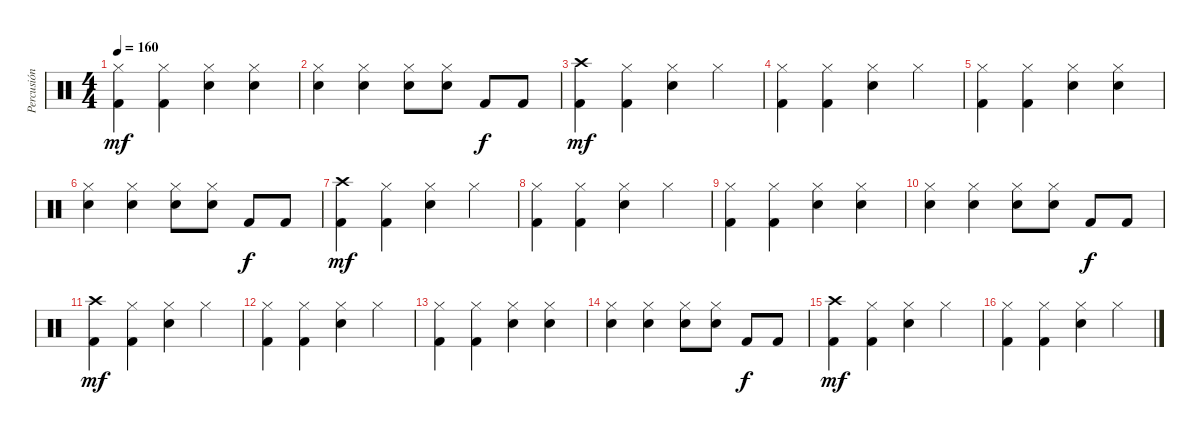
\track ("Percusión" "Percusión") {instrument percussion}
\staff {score}
\articulation defaults
\ts (4 4)
\tempo 160
\clef neutral
\ks c
("Hi-Hat (closed)" "Kick (hit) 2").4{dy mf} ("Hi-Hat (closed)" "Kick (hit) 2").4 ("Hi-Hat (closed)" "Snare (hit) 2").4 ("Hi-Hat (closed)" "Snare (hit) 2").4 |
("Hi-Hat (closed)" "Snare (hit) 2").4 ("Hi-Hat (closed)" "Electric Snare (hit)").4 ("Hi-Hat (closed)" "Snare (hit) 2").8 ("Hi-Hat (closed)" "Snare (hit) 2").8 "Kick (hit) 2".8{dy f} "Kick (hit) 2".8 |
("Crash high (hit)" "Kick (hit) 2").4{dy mf} ("Hi-Hat (closed)" "Kick (hit) 2").4 ("Hi-Hat (closed)" "Snare (hit) 2").4 "Hi-Hat (closed)".4 |
("Hi-Hat (closed)" "Kick (hit) 2").4 ("Hi-Hat (closed)" "Kick (hit) 2").4 ("Hi-Hat (closed)" "Snare (hit) 2").4 "Hi-Hat (closed)".4 |
("Hi-Hat (closed)" "Kick (hit) 2").4 ("Hi-Hat (closed)" "Kick (hit) 2").4 ("Hi-Hat (closed)" "Snare (hit) 2").4 ("Hi-Hat (closed)" "Snare (hit) 2").4 |
("Hi-Hat (closed)" "Snare (hit) 2").4 ("Hi-Hat (closed)" "Electric Snare (hit)").4 ("Hi-Hat (closed)" "Snare (hit) 2").8 ("Hi-Hat (closed)" "Snare (hit) 2").8 "Kick (hit) 2".8{dy f} "Kick (hit) 2".8 |
("Crash high (hit)" "Kick (hit) 2").4{dy mf} ("Hi-Hat (closed)" "Kick (hit) 2").4 ("Hi-Hat (closed)" "Snare (hit) 2").4 "Hi-Hat (closed)".4 |
("Hi-Hat (closed)" "Kick (hit) 2").4 ("Hi-Hat (closed)" "Kick (hit) 2").4 ("Hi-Hat (closed)" "Snare (hit) 2").4 "Hi-Hat (closed)".4 |
("Hi-Hat (closed)" "Kick (hit) 2").4 ("Hi-Hat (closed)" "Kick (hit) 2").4 ("Hi-Hat (closed)" "Snare (hit) 2").4 ("Hi-Hat (closed)" "Snare (hit) 2").4 |
("Hi-Hat (closed)" "Snare (hit) 2").4 ("Hi-Hat (closed)" "Electric Snare (hit)").4 ("Hi-Hat (closed)" "Snare (hit) 2").8 ("Hi-Hat (closed)" "Snare (hit) 2").8 "Kick (hit) 2".8{dy f} "Kick (hit) 2".8 |
("Crash high (hit)" "Kick (hit) 2").4{dy mf} ("Hi-Hat (closed)" "Kick (hit) 2").4 ("Hi-Hat (closed)" "Snare (hit) 2").4 "Hi-Hat (closed)".4 |
("Hi-Hat (closed)" "Kick (hit) 2").4 ("Hi-Hat (closed)" "Kick (hit) 2").4 ("Hi-Hat (closed)" "Snare (hit) 2").4 "Hi-Hat (closed)".4 |
("Hi-Hat (closed)" "Kick (hit) 2").4 ("Hi-Hat (closed)" "Kick (hit) 2").4 ("Hi-Hat (closed)" "Snare (hit) 2").4 ("Hi-Hat (closed)" "Snare (hit) 2").4 |
("Hi-Hat (closed)" "Snare (hit) 2").4 ("Hi-Hat (closed)" "Electric Snare (hit)").4 ("Hi-Hat (closed)" "Snare (hit) 2").8 ("Hi-Hat (closed)" "Snare (hit) 2").8 "Kick (hit) 2".8{dy f} "Kick (hit) 2".8 |
("Crash high (hit)" "Kick (hit) 2").4{dy mf} ("Hi-Hat (closed)" "Kick (hit) 2").4 ("Hi-Hat (closed)" "Snare (hit) 2").4 "Hi-Hat (closed)".4 |
("Hi-Hat (closed)" "Kick (hit) 2").4 ("Hi-Hat (closed)" "Kick (hit) 2").4 ("Hi-Hat (closed)" "Snare (hit) 2").4 "Hi-Hat (closed)".4
